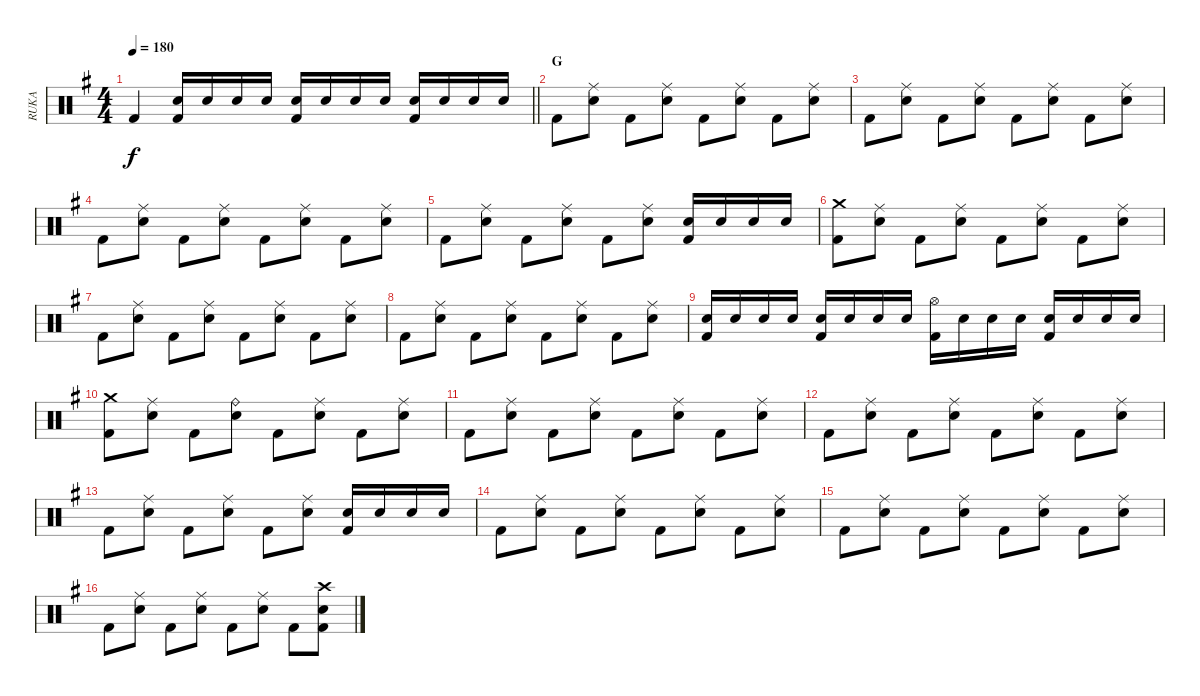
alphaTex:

\track ("RUKA" "RUKA") {instrument percussion}
\staff {score}
\articulation defaults
\ts (4 4)
\tempo 180
\clef neutral
\barLineRight lightlight
\ks g "Kick (hit) 2".4{dy f}
("Snare (hit) 2" "Kick (hit) 2").16 "Snare (hit) 2".16 "Snare (hit) 2".16 "Snare (hit) 2".16 ("Snare (hit) 2" "Kick (hit) 2").16 "Snare (hit) 2".16 "Snare (hit) 2".16 "Snare (hit) 2".16 ("Snare (hit) 2" "Kick (hit) 2").16 "Snare (hit) 2".16 "Snare (hit) 2".16 "Snare (hit) 2".16 |
\section ("" "G")
"Kick (hit) 2".8 ("Ride (middle)" "Snare (hit) 2").8 "Kick (hit) 2".8 ("Ride (middle)" "Snare (hit) 2").8 "Kick (hit) 2".8 ("Ride (middle)" "Snare (hit) 2").8 "Kick (hit) 2".8 ("Ride (middle)" "Snare (hit) 2").8 |
"Kick (hit) 2".8 ("Ride (middle)" "Snare (hit) 2").8 "Kick (hit) 2".8 ("Ride (middle)" "Snare (hit) 2").8 "Kick (hit) 2".8 ("Ride (middle)" "Snare (hit) 2").8 "Kick (hit) 2".8 ("Ride (middle)" "Snare (hit) 2").8 |
"Kick (hit) 2".8 ("Ride (middle)" "Snare (hit) 2").8 "Kick (hit) 2".8 ("Ride (middle)" "Snare (hit) 2").8 "Kick (hit) 2".8 ("Ride (middle)" "Snare (hit) 2").8 "Kick (hit) 2".8 ("Ride (middle)" "Snare (hit) 2").8 |
"Kick (hit) 2".8 ("Ride (middle)" "Snare (hit) 2").8 "Kick (hit) 2".8 ("Ride (middle)" "Snare (hit) 2").8 "Kick (hit) 2".8 ("Ride (middle)" "Snare (hit) 2").8 ("Snare (hit) 2" "Kick (hit) 2").16 "Snare (hit) 2".16 "Snare (hit) 2".16 "Snare (hit) 2".16 |
("Crash medium (hit)" "Kick (hit) 2").8 ("Ride (middle)" "Snare (hit) 2").8 "Kick (hit) 2".8 ("Ride (middle)" "Snare (hit) 2").8 "Kick (hit) 2".8 ("Ride (middle)" "Snare (hit) 2").8 "Kick (hit) 2".8 ("Ride (middle)" "Snare (hit) 2").8 |
"Kick (hit) 2".8 ("Ride (middle)" "Snare (hit) 2").8 "Kick (hit) 2".8 ("Ride (middle)" "Snare (hit) 2").8 "Kick (hit) 2".8 ("Ride (middle)" "Snare (hit) 2").8 "Kick (hit) 2".8 ("Ride (middle)" "Snare (hit) 2").8 |
"Kick (hit) 2".8 ("Ride (middle)" "Snare (hit) 2").8 "Kick (hit) 2".8 ("Ride (middle)" "Snare (hit) 2").8 "Kick (hit) 2".8 ("Ride (middle)" "Snare (hit) 2").8 "Kick (hit) 2".8 ("Ride (middle)" "Snare (hit) 2").8 |
("Snare (hit) 2" "Kick (hit) 2").16 "Snare (hit) 2".16 "Snare (hit) 2".16 "Snare (hit) 2".16 ("Snare (hit) 2" "Kick (hit) 2").16 "Snare (hit) 2".16 "Snare (hit) 2".16 "Snare (hit) 2".16 ("Hi-Hat (open)" "Kick (hit) 2").16 "Snare (hit) 2".16 "Snare (hit) 2".16 "Snare (hit) 2".16 ("Snare (hit) 2" "Kick (hit) 2").16 "Snare (hit) 2".16 "Snare (hit) 2".16 "Snare (hit) 2".16 |
("Crash medium (hit)" "Kick (hit) 2").8 ("Ride (middle)" "Snare (hit) 2").8 "Kick (hit) 2".8 ("Ride (bell)" "Snare (hit) 2").8 "Kick (hit) 2".8 ("Ride (middle)" "Snare (hit) 2").8 "Kick (hit) 2".8 ("Ride (middle)" "Snare (hit) 2").8 |
"Kick (hit) 2".8 ("Ride (middle)" "Snare (hit) 2").8 "Kick (hit) 2".8 ("Ride (middle)" "Snare (hit) 2").8 "Kick (hit) 2".8 ("Ride (middle)" "Snare (hit) 2").8 "Kick (hit) 2".8 ("Ride (middle)" "Snare (hit) 2").8 |
"Kick (hit) 2".8 ("Ride (middle)" "Snare (hit) 2").8 "Kick (hit) 2".8 ("Ride (middle)" "Snare (hit) 2").8 "Kick (hit) 2".8 ("Ride (middle)" "Snare (hit) 2").8 "Kick (hit) 2".8 ("Ride (middle)" "Snare (hit) 2").8 |
"Kick (hit) 2".8 ("Ride (middle)" "Snare (hit) 2").8 "Kick (hit) 2".8 ("Ride (middle)" "Snare (hit) 2").8 "Kick (hit) 2".8 ("Ride (middle)" "Snare (hit) 2").8 ("Snare (hit) 2" "Kick (hit) 2").16 "Snare (hit) 2".16 "Snare (hit) 2".16 "Snare (hit) 2".16 |
"Kick (hit) 2".8 ("Ride (middle)" "Snare (hit) 2").8 "Kick (hit) 2".8 ("Ride (middle)" "Snare (hit) 2").8 "Kick (hit) 2".8 ("Ride (middle)" "Snare (hit) 2").8 "Kick (hit) 2".8 ("Ride (middle)" "Snare (hit) 2").8 |
"Kick (hit) 2".8 ("Ride (middle)" "Snare (hit) 2").8 "Kick (hit) 2".8 ("Ride (middle)" "Snare (hit) 2").8 "Kick (hit) 2".8 ("Ride (middle)" "Snare (hit) 2").8 "Kick (hit) 2".8 ("Ride (middle)" "Snare (hit) 2").8 |
"Kick (hit) 2".8 ("Ride (middle)" "Snare (hit) 2").8 "Kick (hit) 2".8 ("Ride (middle)" "Snare (hit) 2").8 "Kick (hit) 2".8 ("Ride (middle)" "Snare (hit) 2").8 "Kick (hit) 2".8 ("Crash high (hit)" "Snare (hit) 2" "Kick (hit) 2").8
